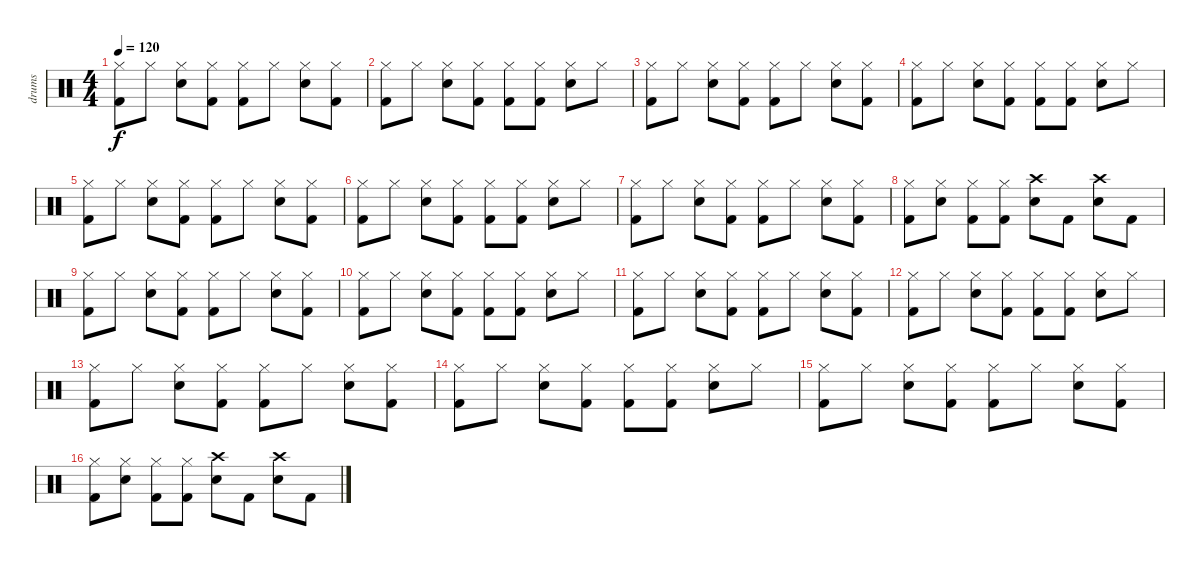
\track ("drums" "drums") {instrument percussion}
\staff {score}
\articulation defaults
\ts (4 4)
\tempo 120
\clef neutral
\ks c
("Hi-Hat (closed)" "Kick (hit) 2").8{dy f} "Hi-Hat (closed)".8 ("Hi-Hat (closed)" "Snare (hit) 2").8 ("Hi-Hat (closed)" "Kick (hit) 2").8 ("Hi-Hat (closed)" "Kick (hit) 2").8 "Hi-Hat (closed)".8 ("Hi-Hat (closed)" "Snare (hit) 2").8 ("Hi-Hat (closed)" "Kick (hit) 2").8 |
("Hi-Hat (closed)" "Kick (hit) 2").8 "Hi-Hat (closed)".8 ("Hi-Hat (closed)" "Snare (hit) 2").8 ("Hi-Hat (closed)" "Kick (hit) 2").8 ("Hi-Hat (closed)" "Kick (hit) 2").8 ("Hi-Hat (closed)" "Kick (hit) 2").8 ("Hi-Hat (closed)" "Snare (hit) 2").8 "Hi-Hat (closed)".8 |
("Hi-Hat (closed)" "Kick (hit) 2").8 "Hi-Hat (closed)".8 ("Hi-Hat (closed)" "Snare (hit) 2").8 ("Hi-Hat (closed)" "Kick (hit) 2").8 ("Hi-Hat (closed)" "Kick (hit) 2").8 "Hi-Hat (closed)".8 ("Hi-Hat (closed)" "Snare (hit) 2").8 ("Hi-Hat (closed)" "Kick (hit) 2").8 |
("Hi-Hat (closed)" "Kick (hit) 2").8 "Hi-Hat (closed)".8 ("Hi-Hat (closed)" "Snare (hit) 2").8 ("Hi-Hat (closed)" "Kick (hit) 2").8 ("Hi-Hat (closed)" "Kick (hit) 2").8 ("Hi-Hat (closed)" "Kick (hit) 2").8 ("Hi-Hat (closed)" "Snare (hit) 2").8 "Hi-Hat (closed)".8 |
("Hi-Hat (closed)" "Kick (hit) 2").8 "Hi-Hat (closed)".8 ("Hi-Hat (closed)" "Snare (hit) 2").8 ("Hi-Hat (closed)" "Kick (hit) 2").8 ("Hi-Hat (closed)" "Kick (hit) 2").8 "Hi-Hat (closed)".8 ("Hi-Hat (closed)" "Snare (hit) 2").8 ("Hi-Hat (closed)" "Kick (hit) 2").8 |
("Hi-Hat (closed)" "Kick (hit) 2").8 "Hi-Hat (closed)".8 ("Hi-Hat (closed)" "Snare (hit) 2").8 ("Hi-Hat (closed)" "Kick (hit) 2").8 ("Hi-Hat (closed)" "Kick (hit) 2").8 ("Hi-Hat (closed)" "Kick (hit) 2").8 ("Hi-Hat (closed)" "Snare (hit) 2").8 "Hi-Hat (closed)".8 |
("Hi-Hat (closed)" "Kick (hit) 2").8 "Hi-Hat (closed)".8 ("Hi-Hat (closed)" "Snare (hit) 2").8 ("Hi-Hat (closed)" "Kick (hit) 2").8 ("Hi-Hat (closed)" "Kick (hit) 2").8 "Hi-Hat (closed)".8 ("Hi-Hat (closed)" "Snare (hit) 2").8 ("Hi-Hat (closed)" "Kick (hit) 2").8 |
("Hi-Hat (closed)" "Kick (hit) 2").8 ("Hi-Hat (closed)" "Snare (hit) 2").8 ("Hi-Hat (closed)" "Kick (hit) 2").8 ("Hi-Hat (closed)" "Kick (hit) 2").8 ("Crash high (hit)" "Snare (hit) 2").8 "Kick (hit) 2".8 ("Crash high (hit)" "Snare (hit) 2").8 "Kick (hit) 2".8 |
("Hi-Hat (closed)" "Kick (hit) 2").8 "Hi-Hat (closed)".8 ("Hi-Hat (closed)" "Snare (hit) 2").8 ("Hi-Hat (closed)" "Kick (hit) 2").8 ("Hi-Hat (closed)" "Kick (hit) 2").8 "Hi-Hat (closed)".8 ("Hi-Hat (closed)" "Snare (hit) 2").8 ("Hi-Hat (closed)" "Kick (hit) 2").8 |
("Hi-Hat (closed)" "Kick (hit) 2").8 "Hi-Hat (closed)".8 ("Hi-Hat (closed)" "Snare (hit) 2").8 ("Hi-Hat (closed)" "Kick (hit) 2").8 ("Hi-Hat (closed)" "Kick (hit) 2").8 ("Hi-Hat (closed)" "Kick (hit) 2").8 ("Hi-Hat (closed)" "Snare (hit) 2").8 "Hi-Hat (closed)".8 |
("Hi-Hat (closed)" "Kick (hit) 2").8 "Hi-Hat (closed)".8 ("Hi-Hat (closed)" "Snare (hit) 2").8 ("Hi-Hat (closed)" "Kick (hit) 2").8 ("Hi-Hat (closed)" "Kick (hit) 2").8 "Hi-Hat (closed)".8 ("Hi-Hat (closed)" "Snare (hit) 2").8 ("Hi-Hat (closed)" "Kick (hit) 2").8 |
("Hi-Hat (closed)" "Kick (hit) 2").8 "Hi-Hat (closed)".8 ("Hi-Hat (closed)" "Snare (hit) 2").8 ("Hi-Hat (closed)" "Kick (hit) 2").8 ("Hi-Hat (closed)" "Kick (hit) 2").8 ("Hi-Hat (closed)" "Kick (hit) 2").8 ("Hi-Hat (closed)" "Snare (hit) 2").8 "Hi-Hat (closed)".8 |
("Hi-Hat (closed)" "Kick (hit) 2").8 "Hi-Hat (closed)".8 ("Hi-Hat (closed)" "Snare (hit) 2").8 ("Hi-Hat (closed)" "Kick (hit) 2").8 ("Hi-Hat (closed)" "Kick (hit) 2").8 "Hi-Hat (closed)".8 ("Hi-Hat (closed)" "Snare (hit) 2").8 ("Hi-Hat (closed)" "Kick (hit) 2").8 |
("Hi-Hat (closed)" "Kick (hit) 2").8 "Hi-Hat (closed)".8 ("Hi-Hat (closed)" "Snare (hit) 2").8 ("Hi-Hat (closed)" "Kick (hit) 2").8 ("Hi-Hat (closed)" "Kick (hit) 2").8 ("Hi-Hat (closed)" "Kick (hit) 2").8 ("Hi-Hat (closed)" "Snare (hit) 2").8 "Hi-Hat (closed)".8 |
("Hi-Hat (closed)" "Kick (hit) 2").8 "Hi-Hat (closed)".8 ("Hi-Hat (closed)" "Snare (hit) 2").8 ("Hi-Hat (closed)" "Kick (hit) 2").8 ("Hi-Hat (closed)" "Kick (hit) 2").8 "Hi-Hat (closed)".8 ("Hi-Hat (closed)" "Snare (hit) 2").8 ("Hi-Hat (closed)" "Kick (hit) 2").8 |
("Hi-Hat (closed)" "Kick (hit) 2").8 ("Hi-Hat (closed)" "Snare (hit) 2").8 ("Hi-Hat (closed)" "Kick (hit) 2").8 ("Hi-Hat (closed)" "Kick (hit) 2").8 ("Crash high (hit)" "Snare (hit) 2").8 "Kick (hit) 2".8 ("Crash high (hit)" "Snare (hit) 2").8 "Kick (hit) 2".8
